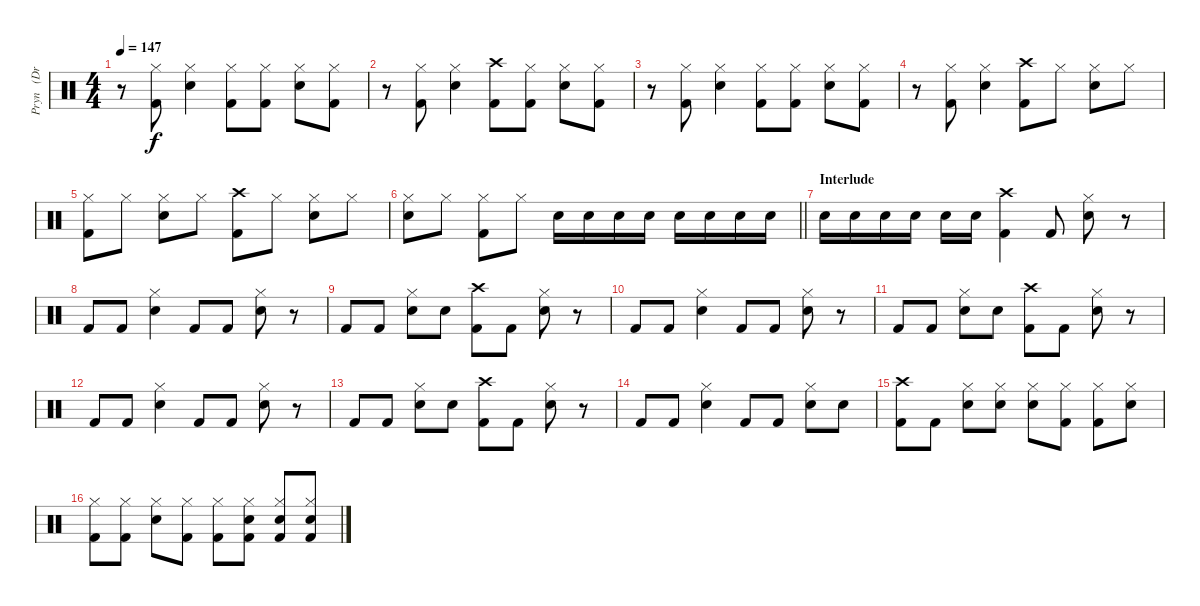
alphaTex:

\track ("Pryn   (Drums)" "Pryn   (Dr") {instrument percussion}
\staff {score}
\articulation defaults
\ts (4 4)
\tempo 147
\clef neutral
\ks c
r.8{dy f} ("Kick (hit) 2" "Hi-Hat (closed)").8 ("Electric Snare (hit)" "Hi-Hat (closed)").4 ("Kick (hit) 2" "Hi-Hat (closed)").8 ("Kick (hit) 2" "Hi-Hat (closed)").8 ("Electric Snare (hit)" "Hi-Hat (closed)").8 ("Kick (hit) 2" "Hi-Hat (closed)").8 |
r.8 ("Kick (hit) 2" "Hi-Hat (closed)").8 ("Electric Snare (hit)" "Hi-Hat (closed)").4 ("Kick (hit) 2" "Crash high (hit)").8 ("Kick (hit) 2" "Hi-Hat (closed)").8 ("Electric Snare (hit)" "Hi-Hat (closed)").8 ("Kick (hit) 2" "Hi-Hat (closed)").8 |
r.8 ("Kick (hit) 2" "Hi-Hat (closed)").8 ("Electric Snare (hit)" "Hi-Hat (closed)").4 ("Kick (hit) 2" "Hi-Hat (closed)").8 ("Kick (hit) 2" "Hi-Hat (closed)").8 ("Electric Snare (hit)" "Hi-Hat (closed)").8 ("Kick (hit) 2" "Hi-Hat (closed)").8 |
r.8 ("Kick (hit) 2" "Hi-Hat (closed)").8 ("Electric Snare (hit)" "Hi-Hat (closed)").4 ("Kick (hit) 2" "Crash high (hit)").8 "Hi-Hat (closed)".8 ("Electric Snare (hit)" "Hi-Hat (closed)").8 "Hi-Hat (closed)".8 |
("Kick (hit) 2" "Hi-Hat (closed)").8 "Hi-Hat (closed)".8 ("Electric Snare (hit)" "Hi-Hat (closed)").8 "Hi-Hat (closed)".8 ("Kick (hit) 2" "Crash high (hit)").8 "Hi-Hat (closed)".8 ("Electric Snare (hit)" "Hi-Hat (closed)").8 "Hi-Hat (closed)".8 |
\barLineRight lightlight
("Electric Snare (hit)" "Hi-Hat (closed)").8 "Hi-Hat (closed)".8 ("Kick (hit) 2" "Hi-Hat (closed)").8 "Hi-Hat (closed)".8 "Electric Snare (hit)".16 "Electric Snare (hit)".16 "Electric Snare (hit)".16 "Electric Snare (hit)".16 "Electric Snare (hit)".16 "Electric Snare (hit)".16 "Electric Snare (hit)".16 "Electric Snare (hit)".16 |
\section ("" "Interlude")
"Electric Snare (hit)".16 "Electric Snare (hit)".16 "Electric Snare (hit)".16 "Electric Snare (hit)".16 "Electric Snare (hit)".16 "Electric Snare (hit)".16 ("Kick (hit) 2" "Crash high (hit)").4 "Kick (hit) 2".8 ("Electric Snare (hit)" "Hi-Hat (closed)").8 r.8 |
"Kick (hit) 2".8 "Kick (hit) 2".8 ("Electric Snare (hit)" "Hi-Hat (closed)").4 "Kick (hit) 2".8 "Kick (hit) 2".8 ("Electric Snare (hit)" "Hi-Hat (closed)").8 r.8 |
"Kick (hit) 2".8 "Kick (hit) 2".8 ("Electric Snare (hit)" "Hi-Hat (closed)").8 "Electric Snare (hit)".8 ("Crash high (hit)" "Kick (hit) 2").8 "Kick (hit) 2".8 ("Electric Snare (hit)" "Hi-Hat (closed)").8 r.8 |
"Kick (hit) 2".8 "Kick (hit) 2".8 ("Electric Snare (hit)" "Hi-Hat (closed)").4 "Kick (hit) 2".8 "Kick (hit) 2".8 ("Electric Snare (hit)" "Hi-Hat (closed)").8 r.8 |
"Kick (hit) 2".8 "Kick (hit) 2".8 ("Electric Snare (hit)" "Hi-Hat (closed)").8 "Electric Snare (hit)".8 ("Crash high (hit)" "Kick (hit) 2").8 "Kick (hit) 2".8 ("Electric Snare (hit)" "Hi-Hat (closed)").8 r.8 |
"Kick (hit) 2".8 "Kick (hit) 2".8 ("Electric Snare (hit)" "Hi-Hat (closed)").4 "Kick (hit) 2".8 "Kick (hit) 2".8 ("Electric Snare (hit)" "Hi-Hat (closed)").8 r.8 |
"Kick (hit) 2".8 "Kick (hit) 2".8 ("Electric Snare (hit)" "Hi-Hat (closed)").8 "Electric Snare (hit)".8 ("Crash high (hit)" "Kick (hit) 2").8 "Kick (hit) 2".8 ("Electric Snare (hit)" "Hi-Hat (closed)").8 r.8 |
"Kick (hit) 2".8 "Kick (hit) 2".8 ("Electric Snare (hit)" "Hi-Hat (closed)").4 "Kick (hit) 2".8 "Kick (hit) 2".8 ("Electric Snare (hit)" "Hi-Hat (closed)").8 "Electric Snare (hit)".8 |
("Crash high (hit)" "Kick (hit) 2").8 "Kick (hit) 2".8 ("Electric Snare (hit)" "Hi-Hat (closed)").8 ("Electric Snare (hit)" "Hi-Hat (closed)").8 ("Electric Snare (hit)" "Hi-Hat (closed)").8 ("Kick (hit) 2" "Hi-Hat (closed)").8 ("Kick (hit) 2" "Hi-Hat (closed)").8 ("Electric Snare (hit)" "Hi-Hat (closed)").8 |
("Kick (hit) 2" "Hi-Hat (closed)").8 ("Kick (hit) 2" "Hi-Hat (closed)").8 ("Electric Snare (hit)" "Hi-Hat (closed)").8 ("Hi-Hat (closed)" "Kick (hit) 2").8 ("Kick (hit) 2" "Hi-Hat (closed)").8 ("Kick (hit) 2" "Electric Snare (hit)" "Hi-Hat (closed)").8 ("Kick (hit) 2" "Electric Snare (hit)" "Hi-Hat (closed)").8 ("Kick (hit) 2" "Electric Snare (hit)" "Hi-Hat (closed)").8
